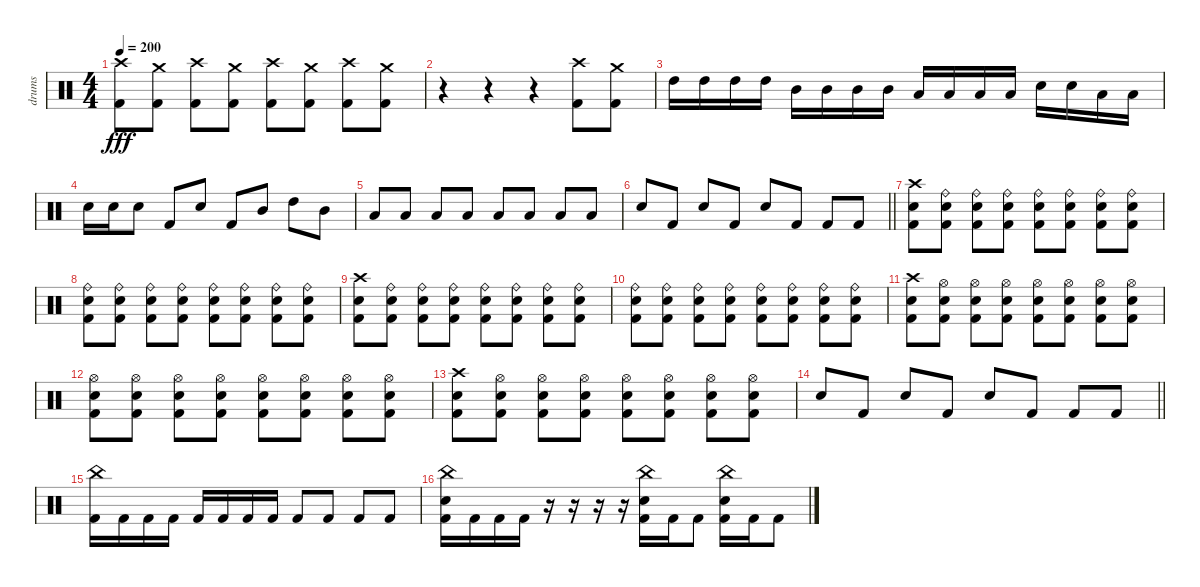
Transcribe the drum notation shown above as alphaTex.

\track ("drums" "drums") {instrument percussion}
\staff {score}
\articulation defaults
\ts (4 4)
\tempo 200
\clef neutral
\ks c
("Crash high (hit)" "Kick (hit) 2").8{dy fff} ("Crash medium (hit)" "Kick (hit) 2").8 ("Crash high (hit)" "Kick (hit) 2").8 ("Crash medium (hit)" "Kick (hit) 2").8 ("Crash high (hit)" "Kick (hit) 2").8 ("Crash medium (hit)" "Kick (hit) 2").8 ("Crash high (hit)" "Kick (hit) 2").8 ("Crash medium (hit)" "Kick (hit) 2").8 |
r.4 r.4 r.4 ("Crash high (hit)" "Kick (hit) 2").8 ("Crash medium (hit)" "Kick (hit) 2").8 |
"High Tom (hit)".16 "High Tom (hit)".16 "High Tom (hit)".16 "High Tom (hit)".16 "Mid Tom (hit)".16 "Mid Tom (hit)".16 "Mid Tom (hit)".16 "Mid Tom (hit)".16 "Low Tom (hit)".16 "Low Tom (hit)".16 "Low Tom (hit)".16 "Low Tom (hit)".16 "Electric Snare (hit)".16 "Electric Snare (hit)".16 "Low Tom (hit)".16 "Low Tom (hit)".16 |
"Electric Snare (hit)".16 "Electric Snare (hit)".16 "Electric Snare (hit)".8 "Kick (hit) 2".8 "Electric Snare (hit)".8 "Kick (hit) 2".8 "Mid Tom (hit)".8 "High Tom (hit)".8 "Mid Tom (hit)".8 |
"Low Floor Tom (hit)".8 "Low Floor Tom (hit)".8 "Low Floor Tom (hit)".8 "Low Floor Tom (hit)".8 "Low Floor Tom (hit)".8 "Low Floor Tom (hit)".8 "Low Floor Tom (hit)".8 "Low Floor Tom (hit)".8 |
\barLineRight lightlight "Electric Snare (hit)".8 "Kick (hit) 2".8 "Electric Snare (hit)".8 "Kick (hit) 2".8 "Electric Snare (hit)".8 "Kick (hit) 2".8 "Kick (hit) 2".8 "Kick (hit) 2".8
|
\section ("" "")
("Crash high (hit)" "Electric Snare (hit)" "Kick (hit) 2").8 ("Ride (bell)" "Electric Snare (hit)" "Kick (hit) 2").8 ("Ride (bell)" "Electric Snare (hit)" "Kick (hit) 2").8 ("Ride (bell)" "Electric Snare (hit)" "Kick (hit) 2").8 ("Ride (bell)" "Electric Snare (hit)" "Kick (hit) 2").8 ("Ride (bell)" "Electric Snare (hit)" "Kick (hit) 2").8 ("Ride (bell)" "Electric Snare (hit)" "Kick (hit) 2").8 ("Ride (bell)" "Electric Snare (hit)" "Kick (hit) 2").8 |
("Ride (bell)" "Electric Snare (hit)" "Kick (hit) 2").8 ("Ride (bell)" "Electric Snare (hit)" "Kick (hit) 2").8 ("Ride (bell)" "Electric Snare (hit)" "Kick (hit) 2").8 ("Ride (bell)" "Electric Snare (hit)" "Kick (hit) 2").8 ("Ride (bell)" "Electric Snare (hit)" "Kick (hit) 2").8 ("Ride (bell)" "Electric Snare (hit)" "Kick (hit) 2").8 ("Ride (bell)" "Electric Snare (hit)" "Kick (hit) 2").8 ("Ride (bell)" "Electric Snare (hit)" "Kick (hit) 2").8 |
("Crash high (hit)" "Electric Snare (hit)" "Kick (hit) 2").8 ("Ride (bell)" "Electric Snare (hit)" "Kick (hit) 2").8 ("Ride (bell)" "Electric Snare (hit)" "Kick (hit) 2").8 ("Ride (bell)" "Electric Snare (hit)" "Kick (hit) 2").8 ("Ride (bell)" "Electric Snare (hit)" "Kick (hit) 2").8 ("Ride (bell)" "Electric Snare (hit)" "Kick (hit) 2").8 ("Ride (bell)" "Electric Snare (hit)" "Kick (hit) 2").8 ("Ride (bell)" "Electric Snare (hit)" "Kick (hit) 2").8 |
("Ride (bell)" "Electric Snare (hit)" "Kick (hit) 2").8 ("Ride (bell)" "Electric Snare (hit)" "Kick (hit) 2").8 ("Ride (bell)" "Electric Snare (hit)" "Kick (hit) 2").8 ("Ride (bell)" "Electric Snare (hit)" "Kick (hit) 2").8 ("Ride (bell)" "Electric Snare (hit)" "Kick (hit) 2").8 ("Ride (bell)" "Electric Snare (hit)" "Kick (hit) 2").8 ("Ride (bell)" "Electric Snare (hit)" "Kick (hit) 2").8 ("Ride (bell)" "Electric Snare (hit)" "Kick (hit) 2").8 |
("Crash high (hit)" "Electric Snare (hit)" "Kick (hit) 2").8 ("Hi-Hat (open)" "Electric Snare (hit)" "Kick (hit) 2").8 ("Hi-Hat (open)" "Electric Snare (hit)" "Kick (hit) 2").8 ("Hi-Hat (open)" "Electric Snare (hit)" "Kick (hit) 2").8 ("Hi-Hat (open)" "Electric Snare (hit)" "Kick (hit) 2").8 ("Hi-Hat (open)" "Electric Snare (hit)" "Kick (hit) 2").8 ("Hi-Hat (open)" "Electric Snare (hit)" "Kick (hit) 2").8 ("Hi-Hat (open)" "Electric Snare (hit)" "Kick (hit) 2").8 |
("Hi-Hat (open)" "Electric Snare (hit)" "Kick (hit) 2").8 ("Hi-Hat (open)" "Electric Snare (hit)" "Kick (hit) 2").8 ("Hi-Hat (open)" "Electric Snare (hit)" "Kick (hit) 2").8 ("Hi-Hat (open)" "Electric Snare (hit)" "Kick (hit) 2").8 ("Hi-Hat (open)" "Electric Snare (hit)" "Kick (hit) 2").8 ("Hi-Hat (open)" "Electric Snare (hit)" "Kick (hit) 2").8 ("Hi-Hat (open)" "Electric Snare (hit)" "Kick (hit) 2").8 ("Hi-Hat (open)" "Electric Snare (hit)" "Kick (hit) 2").8 |
("Crash high (hit)" "Electric Snare (hit)" "Kick (hit) 2").8 ("Hi-Hat (open)" "Electric Snare (hit)" "Kick (hit) 2").8 ("Hi-Hat (open)" "Electric Snare (hit)" "Kick (hit) 2").8 ("Hi-Hat (open)" "Electric Snare (hit)" "Kick (hit) 2").8 ("Hi-Hat (open)" "Electric Snare (hit)" "Kick (hit) 2").8 ("Hi-Hat (open)" "Electric Snare (hit)" "Kick (hit) 2").8 ("Hi-Hat (open)" "Electric Snare (hit)" "Kick (hit) 2").8 ("Hi-Hat (open)" "Electric Snare (hit)" "Kick (hit) 2").8 |
\barLineRight lightlight "Electric Snare (hit)".8 "Kick (hit) 2".8 "Electric Snare (hit)".8 "Kick (hit) 2".8 "Electric Snare (hit)".8 "Kick (hit) 2".8 "Kick (hit) 2".8 "Kick (hit) 2".8
|
\section ("" "")
("China (hit)" "Kick (hit) 2").16 "Kick (hit) 2".16 "Kick (hit) 2".16 "Kick (hit) 2".16 "Kick (hit) 2".16 "Kick (hit) 2".16 "Kick (hit) 2".16 "Kick (hit) 2".16 "Kick (hit) 2".8 "Kick (hit) 2".8 "Kick (hit) 2".8 "Kick (hit) 2".8 |
("China (hit)" "Electric Snare (hit)" "Kick (hit) 2").16 "Kick (hit) 2".16 "Kick (hit) 2".16 "Kick (hit) 2".16 r.16 r.16 r.16 r.16 ("China (hit)" "Electric Snare (hit)" "Kick (hit) 2").16 "Kick (hit) 2".16 "Kick (hit) 2".8 ("China (hit)" "Electric Snare (hit)" "Kick (hit) 2").16 "Kick (hit) 2".16 "Kick (hit) 2".8
